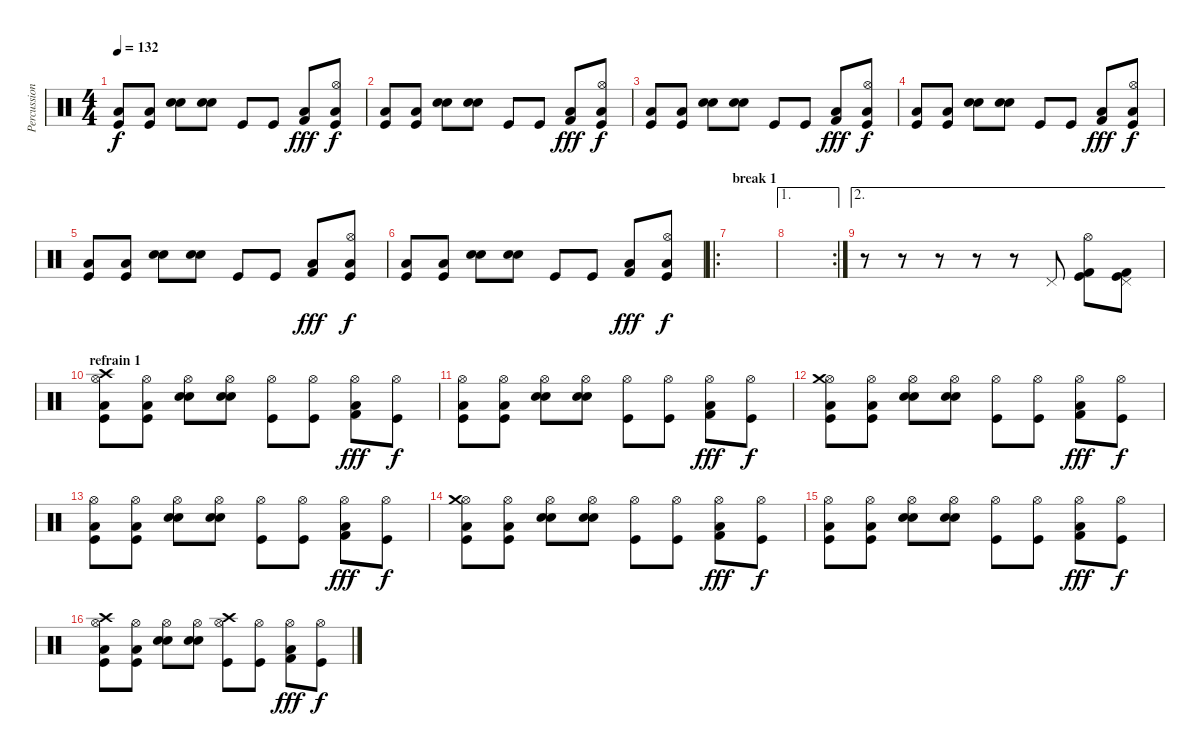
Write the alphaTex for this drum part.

\track ("Percussions" "Percussion") {instrument percussion}
\staff {score}
\articulation defaults
\ts (4 4)
\tempo 132
\clef neutral
\ks c
("Low Floor Tom (hit)" "Kick (hit)").8{dy f} ("Low Floor Tom (hit)" "Kick (hit)").8 ("Electric Snare (hit)" "Snare (hit) 2").8{bu 480} ("Electric Snare (hit)" "Snare (hit) 2").8{bu 480} "Kick (hit)".8 "Kick (hit)".8 ("Kick (hit) 2" "Low Floor Tom (hit)").8{dy fff} ("Hi-Hat (open)" "Low Tom (hit)" "Kick (hit)").8{dy f} |
("Low Floor Tom (hit)" "Kick (hit)").8 ("Low Floor Tom (hit)" "Kick (hit)").8 ("Electric Snare (hit)" "Snare (hit) 2").8{bu 480} ("Electric Snare (hit)" "Snare (hit) 2").8{bu 480} "Kick (hit)".8 "Kick (hit)".8 ("Kick (hit) 2" "Low Floor Tom (hit)").8{dy fff} ("Hi-Hat (open)" "Low Tom (hit)" "Kick (hit)").8{dy f} |
("Low Floor Tom (hit)" "Kick (hit)").8 ("Low Floor Tom (hit)" "Kick (hit)").8 ("Electric Snare (hit)" "Snare (hit) 2").8{bu 480} ("Electric Snare (hit)" "Snare (hit) 2").8{bu 480} "Kick (hit)".8 "Kick (hit)".8 ("Kick (hit) 2" "Low Floor Tom (hit)").8{dy fff} ("Hi-Hat (open)" "Low Tom (hit)" "Kick (hit)").8{dy f} |
("Low Floor Tom (hit)" "Kick (hit)").8 ("Low Floor Tom (hit)" "Kick (hit)").8 ("Electric Snare (hit)" "Snare (hit) 2").8{bu 480} ("Electric Snare (hit)" "Snare (hit) 2").8{bu 480} "Kick (hit)".8 "Kick (hit)".8 ("Kick (hit) 2" "Low Floor Tom (hit)").8{dy fff} ("Hi-Hat (open)" "Low Tom (hit)" "Kick (hit)").8{dy f} |
("Low Floor Tom (hit)" "Kick (hit)").8 ("Low Floor Tom (hit)" "Kick (hit)").8 ("Electric Snare (hit)" "Snare (hit) 2").8{bu 480} ("Electric Snare (hit)" "Snare (hit) 2").8{bu 480} "Kick (hit)".8 "Kick (hit)".8 ("Kick (hit) 2" "Low Floor Tom (hit)").8{dy fff} ("Hi-Hat (open)" "Low Tom (hit)" "Kick (hit)").8{dy f} |
("Low Floor Tom (hit)" "Kick (hit)").8 ("Low Floor Tom (hit)" "Kick (hit)").8 ("Electric Snare (hit)" "Snare (hit) 2").8{bu 480} ("Electric Snare (hit)" "Snare (hit) 2").8{bu 480} "Kick (hit)".8 "Kick (hit)".8 ("Kick (hit) 2" "Low Floor Tom (hit)").8{dy fff} ("Hi-Hat (open)" "Low Tom (hit)" "Kick (hit)").8{dy f} |
\ro
\section ("" "break 1")
|
\ae 1
\rc 2
|
\ae 2
r.8 r.8 r.8 r.8 r.8 "Pedal Hi-Hat (hit)".8 ("Hi-Hat (open)" "Kick (hit) 2" "Kick (hit)").8 ("Pedal Hi-Hat (hit)" "Kick (hit) 2" "Kick (hit)").8 |
\section ("" "refrain 1")
("Hi-Hat (open)" "Crash high (hit)" "Low Floor Tom (hit)" "Kick (hit)").8 ("Hi-Hat (open)" "Low Floor Tom (hit)" "Kick (hit)").8 ("Hi-Hat (open)" "Electric Snare (hit)" "Snare (hit) 2").8 ("Hi-Hat (open)" "Electric Snare (hit)" "Snare (hit) 2").8 ("Hi-Hat (open)" "Kick (hit)").8 ("Hi-Hat (open)" "Kick (hit)").8 ("Hi-Hat (open)" "Kick (hit) 2" "Low Floor Tom (hit)").8{dy fff} ("Hi-Hat (open)" "Kick (hit)").8{dy f} |
("Hi-Hat (open)" "Low Floor Tom (hit)" "Kick (hit)").8 ("Hi-Hat (open)" "Low Floor Tom (hit)" "Kick (hit)").8 ("Hi-Hat (open)" "Electric Snare (hit)" "Snare (hit) 2").8 ("Hi-Hat (open)" "Electric Snare (hit)" "Snare (hit) 2").8 ("Hi-Hat (open)" "Kick (hit)").8 ("Hi-Hat (open)" "Kick (hit)").8 ("Hi-Hat (open)" "Kick (hit) 2" "Low Floor Tom (hit)").8{dy fff} ("Hi-Hat (open)" "Kick (hit)").8{dy f} |
("Hi-Hat (open)" "Crash medium (hit)" "Low Floor Tom (hit)" "Kick (hit)").8 ("Hi-Hat (open)" "Low Floor Tom (hit)" "Kick (hit)").8 ("Hi-Hat (open)" "Electric Snare (hit)" "Snare (hit) 2").8 ("Hi-Hat (open)" "Electric Snare (hit)" "Snare (hit) 2").8 ("Hi-Hat (open)" "Kick (hit)").8 ("Hi-Hat (open)" "Kick (hit)").8 ("Hi-Hat (open)" "Kick (hit) 2" "Low Floor Tom (hit)").8{dy fff} ("Hi-Hat (open)" "Kick (hit)").8{dy f} |
("Hi-Hat (open)" "Low Floor Tom (hit)" "Kick (hit)").8 ("Hi-Hat (open)" "Low Floor Tom (hit)" "Kick (hit)").8 ("Hi-Hat (open)" "Electric Snare (hit)" "Snare (hit) 2").8 ("Hi-Hat (open)" "Electric Snare (hit)" "Snare (hit) 2").8 ("Hi-Hat (open)" "Kick (hit)").8 ("Hi-Hat (open)" "Kick (hit)").8 ("Hi-Hat (open)" "Kick (hit) 2" "Low Floor Tom (hit)").8{dy fff} ("Hi-Hat (open)" "Kick (hit)").8{dy f} |
("Hi-Hat (open)" "Crash medium (hit)" "Low Floor Tom (hit)" "Kick (hit)").8 ("Hi-Hat (open)" "Low Floor Tom (hit)" "Kick (hit)").8 ("Hi-Hat (open)" "Electric Snare (hit)" "Snare (hit) 2").8 ("Hi-Hat (open)" "Electric Snare (hit)" "Snare (hit) 2").8 ("Hi-Hat (open)" "Kick (hit)").8 ("Hi-Hat (open)" "Kick (hit)").8 ("Hi-Hat (open)" "Kick (hit) 2" "Low Floor Tom (hit)").8{dy fff} ("Hi-Hat (open)" "Kick (hit)").8{dy f} |
("Hi-Hat (open)" "Low Floor Tom (hit)" "Kick (hit)").8 ("Hi-Hat (open)" "Low Floor Tom (hit)" "Kick (hit)").8 ("Hi-Hat (open)" "Electric Snare (hit)" "Snare (hit) 2").8 ("Hi-Hat (open)" "Electric Snare (hit)" "Snare (hit) 2").8 ("Hi-Hat (open)" "Kick (hit)").8 ("Hi-Hat (open)" "Kick (hit)").8 ("Hi-Hat (open)" "Kick (hit) 2" "Low Floor Tom (hit)").8{dy fff} ("Hi-Hat (open)" "Kick (hit)").8{dy f} |
("Hi-Hat (open)" "Crash high (hit)" "Low Floor Tom (hit)" "Kick (hit)").8 ("Hi-Hat (open)" "Low Floor Tom (hit)" "Kick (hit)").8 ("Hi-Hat (open)" "Electric Snare (hit)" "Snare (hit) 2").8 ("Hi-Hat (open)" "Electric Snare (hit)" "Snare (hit) 2").8 ("Hi-Hat (open)" "Crash high (hit)" "Kick (hit)").8 ("Hi-Hat (open)" "Kick (hit)").8 ("Hi-Hat (open)" "Kick (hit) 2" "Low Floor Tom (hit)").8{dy fff} ("Hi-Hat (open)" "Kick (hit)").8{dy f}
